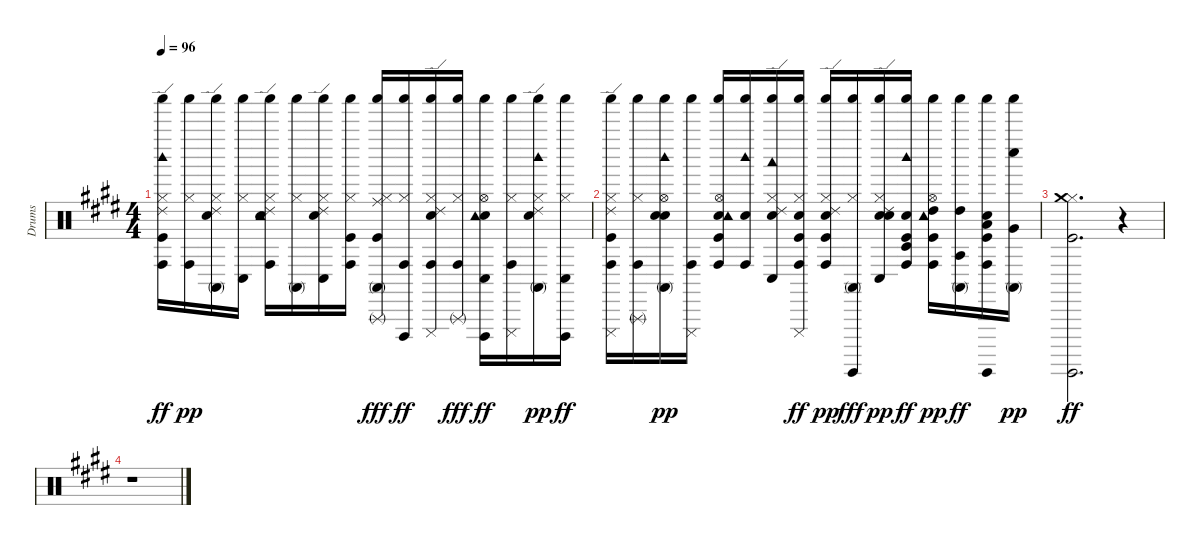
\track ("Drums" "Drums") {instrument percussion}
\staff {score}
\articulation defaults
\ts (4 4)
\tempo 96
\clef neutral
\ks e
("Kick (hit)" "Hi-Hat (closed)" "Ride (edge) 2" "Conga high (hit)" "Shaker (hit)" "Woodblock high (hit)").16{dy ff} ("Hi-Hat (closed)" "Conga high (hit)" "Shaker (hit)").16{dy pp} ("Hand Clap (hit)" "Hi-Hat (closed)" "Ride (edge) 2" "Conga high (mute)" "Shaker (hit)").16 ("Hi-Hat (closed)" "Conga low (hit)" "Shaker (hit)").16 ("Electric Snare (hit)" "Hi-Hat (closed)" "Tambourine (hit)" "Ride (edge) 2" "Conga high (hit)" "Shaker (hit)").16 ("Hi-Hat (closed)" "Conga high (mute)" "Shaker (hit)").16 ("Hand Clap (hit)" "Hi-Hat (closed)" "Ride (edge) 2" "Conga low (hit)" "Shaker (hit)").16 ("Kick (hit)" "Hi-Hat (closed)" "Conga high (hit)" "Shaker (hit)").16 ("Kick (hit)" "Hi-Hat (closed)" "Ride (middle)" "Conga high (mute)" "Shaker (hit)" "Triangle (rnute)").16{dy fff} ("Hi-Hat (closed)" "Conga high (hit)" "Shaker (hit)" "Cuica (open)").16{dy ff} ("Hand Clap (hit)" "Hi-Hat (closed)" "Ride (edge) 2" "Conga high (hit)" "Shaker (hit)" "Cuica (mute)").16 ("Hi-Hat (closed)" "Conga high (hit)" "Shaker (hit)" "Triangle (rnute)").16{dy fff} ("Electric Snare (hit)" "Hi-Hat (open)" "Tambourine (hit)" "Conga low (hit)" "Shaker (hit)" "Cuica (open)").16{dy ff} ("Hi-Hat (closed)" "Conga high (hit)" "Shaker (hit)" "Cuica (mute)").16 ("Hand Clap (hit)" "Hi-Hat (closed)" "Ride (edge) 2" "Conga high (mute)" "Woodblock high (hit)" "Shaker (hit)").16{dy pp} ("Hi-Hat (closed)" "Conga low (hit)" "Shaker (hit)" "Cuica (open)").16{dy ff} |
("Kick (hit)" "Hi-Hat (closed)" "Ride (edge) 2" "Conga high (hit)" "Shaker (hit)" "Cuica (mute)").16 ("Hi-Hat (closed)" "Conga high (hit)" "Shaker (hit)" "Triangle (rnute)").16 ("Hand Clap (hit)" "Electric Snare (hit)" "Hi-Hat (open)" "Conga high (mute)" "Woodblock high (hit)" "Shaker (hit)").16{dy pp} ("Conga high (hit)" "Shaker (hit)" "Cuica (mute)").16 ("Kick (hit)" "Electric Snare (hit)" "Hi-Hat (open)" "Tambourine (hit)" "Conga high (hit)" "Shaker (hit)").16 ("Electric Snare (hit)" "Conga high (hit)" "Woodblock high (hit)" "Shaker (hit)").16 ("Hand Clap (hit)" "Hi-Hat (closed)" "Ride (edge) 2" "Conga low (hit)" "Shaker (hit)" "Woodblock low (hit)").16 ("Kick (hit)" "Electric Snare (hit)" "Hi-Hat (closed)" "Conga high (hit)" "Shaker (hit)" "Cuica (mute)").16{dy ff} ("Kick (hit)" "Electric Snare (hit)" "Hi-Hat (closed)" "Ride (edge) 2" "Conga high (hit)" "Shaker (hit)").16{dy pp} ("Hi-Hat (closed)" "Conga high (mute)" "Shaker (hit)" "Guiro (hit)").16{dy fff} ("Hand Clap (hit)" "Electric Snare (hit)" "Hi-Hat (closed)" "Ride (edge) 2" "Conga low (hit)" "Shaker (hit)").16{dy pp} ("Kick (hit)" "Electric Snare (hit)" "Conga high (hit)" "Woodblock high (hit)" "Shaker (hit)" "Timbale low (hit)").16{dy ff} ("Kick (hit)" "Hi-Hat (open)" "High Tom (hit)" "Tambourine (hit)" "Conga high (hit)" "Shaker (hit)").16{dy pp} ("High Tom (hit)" "Conga high (mute)" "Shaker (hit)" "Agogo tow (hit)").16{dy ff} ("Kick (hit)" "Hand Clap (hit)" "Low Tom (hit)" "Conga high (hit)" "Shaker (hit)" "Guiro (hit)").16 ("Very Low Tom (hit)" "Conga high (mute)" "Shaker (hit)" "Whistle low (hit)").16{dy pp} |
("Kick (hit)" "Hi-Hat (closed)" "Crash medium (hit)" "Guiro (hit)").2{d dy ff} r.4 |
r.1
